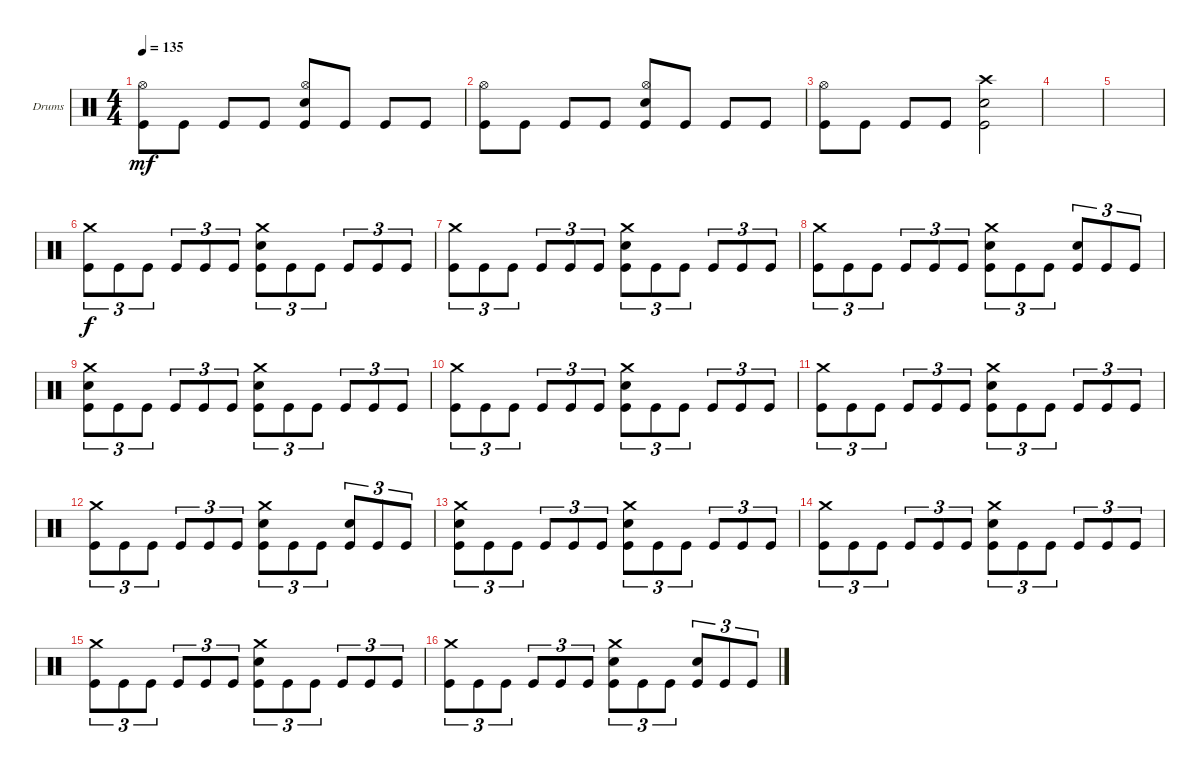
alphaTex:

\defaultSystemsLayout 4
\bracketExtendMode groupsimilarinstruments
\firstSystemTrackNameOrientation horizontal
\otherSystemsTrackNameOrientation horizontal
\track ("Drumkit" "Drums") {instrument percussion}
\staff {score}
\articulation defaults
\ts (4 4)
\tempo 135
\clef neutral
\ks c
("Kick (hit)" "Hi-Hat (open)").8{dy mf} "Kick (hit)".8 "Kick (hit)".8 "Kick (hit)".8 ("Kick (hit)" "Snare (hit) 2" "Hi-Hat (open)").8 "Kick (hit)".8 "Kick (hit)".8 "Kick (hit)".8 |
("Kick (hit)" "Hi-Hat (open)").8 "Kick (hit)".8 "Kick (hit)".8 "Kick (hit)".8 ("Kick (hit)" "Snare (hit) 2" "Hi-Hat (open)").8 "Kick (hit)".8 "Kick (hit)".8 "Kick (hit)".8 |
("Kick (hit)" "Hi-Hat (open)").8 "Kick (hit)".8 "Kick (hit)".8 "Kick (hit)".8 ("Kick (hit)" "Snare (hit) 2" "Crash high (hit)").2 |
|
|
("Kick (hit)" "Crash medium (hit)").8{tu (3 2) dy f} "Kick (hit)".8{tu (3 2)} "Kick (hit)".8{tu (3 2)} "Kick (hit)".8{tu (3 2)} "Kick (hit)".8{tu (3 2)} "Kick (hit)".8{tu (3 2)} ("Kick (hit)" "Crash medium (hit)" "Snare (hit) 2").8{tu (3 2)} "Kick (hit)".8{tu (3 2)} "Kick (hit)".8{tu (3 2)} "Kick (hit)".8{tu (3 2)} "Kick (hit)".8{tu (3 2)} "Kick (hit)".8{tu (3 2)} |
("Kick (hit)" "Crash medium (hit)").8{tu (3 2)} "Kick (hit)".8{tu (3 2)} "Kick (hit)".8{tu (3 2)} "Kick (hit)".8{tu (3 2)} "Kick (hit)".8{tu (3 2)} "Kick (hit)".8{tu (3 2)} ("Kick (hit)" "Crash medium (hit)" "Snare (hit) 2").8{tu (3 2)} "Kick (hit)".8{tu (3 2)} "Kick (hit)".8{tu (3 2)} "Kick (hit)".8{tu (3 2)} "Kick (hit)".8{tu (3 2)} "Kick (hit)".8{tu (3 2)} |
("Kick (hit)" "Crash medium (hit)").8{tu (3 2)} "Kick (hit)".8{tu (3 2)} "Kick (hit)".8{tu (3 2)} "Kick (hit)".8{tu (3 2)} "Kick (hit)".8{tu (3 2)} "Kick (hit)".8{tu (3 2)} ("Kick (hit)" "Crash medium (hit)" "Snare (hit) 2").8{tu (3 2)} "Kick (hit)".8{tu (3 2)} "Kick (hit)".8{tu (3 2)} ("Kick (hit)" "Snare (hit) 2").8{tu (3 2)} "Kick (hit)".8{tu (3 2)} "Kick (hit)".8{tu (3 2)} |
("Kick (hit)" "Crash medium (hit)" "Snare (hit) 2").8{tu (3 2)} "Kick (hit)".8{tu (3 2)} "Kick (hit)".8{tu (3 2)} "Kick (hit)".8{tu (3 2)} "Kick (hit)".8{tu (3 2)} "Kick (hit)".8{tu (3 2)} ("Kick (hit)" "Crash medium (hit)" "Snare (hit) 2").8{tu (3 2)} "Kick (hit)".8{tu (3 2)} "Kick (hit)".8{tu (3 2)} "Kick (hit)".8{tu (3 2)} "Kick (hit)".8{tu (3 2)} "Kick (hit)".8{tu (3 2)} |
("Kick (hit)" "Crash medium (hit)").8{tu (3 2)} "Kick (hit)".8{tu (3 2)} "Kick (hit)".8{tu (3 2)} "Kick (hit)".8{tu (3 2)} "Kick (hit)".8{tu (3 2)} "Kick (hit)".8{tu (3 2)} ("Kick (hit)" "Crash medium (hit)" "Snare (hit) 2").8{tu (3 2)} "Kick (hit)".8{tu (3 2)} "Kick (hit)".8{tu (3 2)} "Kick (hit)".8{tu (3 2)} "Kick (hit)".8{tu (3 2)} "Kick (hit)".8{tu (3 2)} |
("Kick (hit)" "Crash medium (hit)").8{tu (3 2)} "Kick (hit)".8{tu (3 2)} "Kick (hit)".8{tu (3 2)} "Kick (hit)".8{tu (3 2)} "Kick (hit)".8{tu (3 2)} "Kick (hit)".8{tu (3 2)} ("Kick (hit)" "Crash medium (hit)" "Snare (hit) 2").8{tu (3 2)} "Kick (hit)".8{tu (3 2)} "Kick (hit)".8{tu (3 2)} "Kick (hit)".8{tu (3 2)} "Kick (hit)".8{tu (3 2)} "Kick (hit)".8{tu (3 2)} |
("Kick (hit)" "Crash medium (hit)").8{tu (3 2)} "Kick (hit)".8{tu (3 2)} "Kick (hit)".8{tu (3 2)} "Kick (hit)".8{tu (3 2)} "Kick (hit)".8{tu (3 2)} "Kick (hit)".8{tu (3 2)} ("Kick (hit)" "Crash medium (hit)" "Snare (hit) 2").8{tu (3 2)} "Kick (hit)".8{tu (3 2)} "Kick (hit)".8{tu (3 2)} ("Kick (hit)" "Snare (hit) 2").8{tu (3 2)} "Kick (hit)".8{tu (3 2)} "Kick (hit)".8{tu (3 2)} |
("Kick (hit)" "Crash medium (hit)" "Snare (hit) 2").8{tu (3 2)} "Kick (hit)".8{tu (3 2)} "Kick (hit)".8{tu (3 2)} "Kick (hit)".8{tu (3 2)} "Kick (hit)".8{tu (3 2)} "Kick (hit)".8{tu (3 2)} ("Kick (hit)" "Crash medium (hit)" "Snare (hit) 2").8{tu (3 2)} "Kick (hit)".8{tu (3 2)} "Kick (hit)".8{tu (3 2)} "Kick (hit)".8{tu (3 2)} "Kick (hit)".8{tu (3 2)} "Kick (hit)".8{tu (3 2)} |
("Kick (hit)" "Crash medium (hit)").8{tu (3 2)} "Kick (hit)".8{tu (3 2)} "Kick (hit)".8{tu (3 2)} "Kick (hit)".8{tu (3 2)} "Kick (hit)".8{tu (3 2)} "Kick (hit)".8{tu (3 2)} ("Kick (hit)" "Crash medium (hit)" "Snare (hit) 2").8{tu (3 2)} "Kick (hit)".8{tu (3 2)} "Kick (hit)".8{tu (3 2)} "Kick (hit)".8{tu (3 2)} "Kick (hit)".8{tu (3 2)} "Kick (hit)".8{tu (3 2)} |
("Kick (hit)" "Crash medium (hit)").8{tu (3 2)} "Kick (hit)".8{tu (3 2)} "Kick (hit)".8{tu (3 2)} "Kick (hit)".8{tu (3 2)} "Kick (hit)".8{tu (3 2)} "Kick (hit)".8{tu (3 2)} ("Kick (hit)" "Crash medium (hit)" "Snare (hit) 2").8{tu (3 2)} "Kick (hit)".8{tu (3 2)} "Kick (hit)".8{tu (3 2)} "Kick (hit)".8{tu (3 2)} "Kick (hit)".8{tu (3 2)} "Kick (hit)".8{tu (3 2)} |
("Kick (hit)" "Crash medium (hit)").8{tu (3 2)} "Kick (hit)".8{tu (3 2)} "Kick (hit)".8{tu (3 2)} "Kick (hit)".8{tu (3 2)} "Kick (hit)".8{tu (3 2)} "Kick (hit)".8{tu (3 2)} ("Kick (hit)" "Crash medium (hit)" "Snare (hit) 2").8{tu (3 2)} "Kick (hit)".8{tu (3 2)} "Kick (hit)".8{tu (3 2)} ("Kick (hit)" "Snare (hit) 2").8{tu (3 2)} "Kick (hit)".8{tu (3 2)} "Kick (hit)".8{tu (3 2)}
